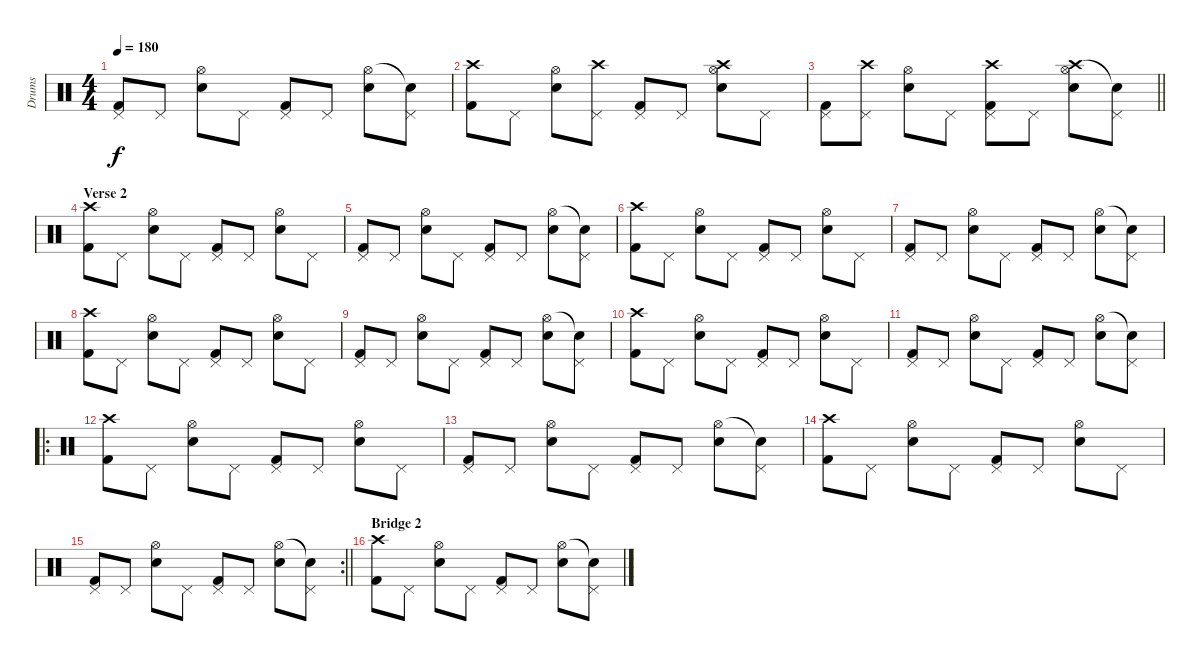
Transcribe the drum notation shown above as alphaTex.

\track ("Drums" "Drums") {instrument percussion}
\staff {score}
\articulation defaults
\ts (4 4)
\tempo 180
\clef neutral
\ks c
("Pedal Hi-Hat (hit)" "Kick (hit) 2").8{dy f} "Pedal Hi-Hat (hit)".8 ("Hi-Hat (open)" "Snare (hit) 2").8 "Pedal Hi-Hat (hit)".8 ("Pedal Hi-Hat (hit)" "Kick (hit) 2").8 "Pedal Hi-Hat (hit)".8 ("Hi-Hat (open)" "Snare (hit) 2").8 ("Snare (hit)"{t} "Pedal Hi-Hat (hit)").8 |
("Crash high (hit)" "Kick (hit) 2").8 "Pedal Hi-Hat (hit)".8 ("Hi-Hat (open)" "Snare (hit) 2").8 ("Crash high (hit)" "Pedal Hi-Hat (hit)").8 ("Pedal Hi-Hat (hit)" "Kick (hit) 2").8 "Pedal Hi-Hat (hit)".8 ("Crash high (hit)" "Hi-Hat (open)" "Snare (hit) 2").8 "Pedal Hi-Hat (hit)".8 |
\barLineRight lightlight
("Pedal Hi-Hat (hit)" "Kick (hit) 2").8 ("Crash high (hit)" "Pedal Hi-Hat (hit)").8 ("Hi-Hat (open)" "Snare (hit) 2").8 "Pedal Hi-Hat (hit)".8 ("Crash high (hit)" "Pedal Hi-Hat (hit)" "Kick (hit) 2").8 "Pedal Hi-Hat (hit)".8 ("Crash high (hit)" "Hi-Hat (open)" "Snare (hit) 2").8 ("Snare (hit)"{t} "Pedal Hi-Hat (hit)").8 |
\section ("" "Verse 2")
("Crash high (hit)" "Kick (hit) 2").8 "Pedal Hi-Hat (hit)".8 ("Hi-Hat (open)" "Snare (hit) 2").8 "Pedal Hi-Hat (hit)".8 ("Pedal Hi-Hat (hit)" "Kick (hit) 2").8 "Pedal Hi-Hat (hit)".8 ("Hi-Hat (open)" "Snare (hit) 2").8 "Pedal Hi-Hat (hit)".8 |
("Pedal Hi-Hat (hit)" "Kick (hit) 2").8 "Pedal Hi-Hat (hit)".8 ("Hi-Hat (open)" "Snare (hit) 2").8 "Pedal Hi-Hat (hit)".8 ("Pedal Hi-Hat (hit)" "Kick (hit) 2").8 "Pedal Hi-Hat (hit)".8 ("Hi-Hat (open)" "Snare (hit) 2").8 ("Snare (hit)"{t} "Pedal Hi-Hat (hit)").8 |
("Crash high (hit)" "Kick (hit) 2").8 "Pedal Hi-Hat (hit)".8 ("Hi-Hat (open)" "Snare (hit) 2").8 "Pedal Hi-Hat (hit)".8 ("Pedal Hi-Hat (hit)" "Kick (hit) 2").8 "Pedal Hi-Hat (hit)".8 ("Hi-Hat (open)" "Snare (hit) 2").8 "Pedal Hi-Hat (hit)".8 |
("Pedal Hi-Hat (hit)" "Kick (hit) 2").8 "Pedal Hi-Hat (hit)".8 ("Hi-Hat (open)" "Snare (hit) 2").8 "Pedal Hi-Hat (hit)".8 ("Pedal Hi-Hat (hit)" "Kick (hit) 2").8 "Pedal Hi-Hat (hit)".8 ("Hi-Hat (open)" "Snare (hit) 2").8 ("Snare (hit)"{t} "Pedal Hi-Hat (hit)").8 |
("Crash high (hit)" "Kick (hit) 2").8 "Pedal Hi-Hat (hit)".8 ("Hi-Hat (open)" "Snare (hit) 2").8 "Pedal Hi-Hat (hit)".8 ("Pedal Hi-Hat (hit)" "Kick (hit) 2").8 "Pedal Hi-Hat (hit)".8 ("Hi-Hat (open)" "Snare (hit) 2").8 "Pedal Hi-Hat (hit)".8 |
("Pedal Hi-Hat (hit)" "Kick (hit) 2").8 "Pedal Hi-Hat (hit)".8 ("Hi-Hat (open)" "Snare (hit) 2").8 "Pedal Hi-Hat (hit)".8 ("Pedal Hi-Hat (hit)" "Kick (hit) 2").8 "Pedal Hi-Hat (hit)".8 ("Hi-Hat (open)" "Snare (hit) 2").8 ("Snare (hit)"{t} "Pedal Hi-Hat (hit)").8 |
("Crash high (hit)" "Kick (hit) 2").8 "Pedal Hi-Hat (hit)".8 ("Hi-Hat (open)" "Snare (hit) 2").8 "Pedal Hi-Hat (hit)".8 ("Pedal Hi-Hat (hit)" "Kick (hit) 2").8 "Pedal Hi-Hat (hit)".8 ("Hi-Hat (open)" "Snare (hit) 2").8 "Pedal Hi-Hat (hit)".8 |
("Pedal Hi-Hat (hit)" "Kick (hit) 2").8 "Pedal Hi-Hat (hit)".8 ("Hi-Hat (open)" "Snare (hit) 2").8 "Pedal Hi-Hat (hit)".8 ("Pedal Hi-Hat (hit)" "Kick (hit) 2").8 "Pedal Hi-Hat (hit)".8 ("Hi-Hat (open)" "Snare (hit) 2").8 ("Snare (hit)"{t} "Pedal Hi-Hat (hit)").8 |
\ro
("Crash high (hit)" "Kick (hit) 2").8 "Pedal Hi-Hat (hit)".8 ("Hi-Hat (open)" "Snare (hit) 2").8 "Pedal Hi-Hat (hit)".8 ("Pedal Hi-Hat (hit)" "Kick (hit) 2").8 "Pedal Hi-Hat (hit)".8 ("Hi-Hat (open)" "Snare (hit) 2").8 "Pedal Hi-Hat (hit)".8 |
("Pedal Hi-Hat (hit)" "Kick (hit) 2").8 "Pedal Hi-Hat (hit)".8 ("Hi-Hat (open)" "Snare (hit) 2").8 "Pedal Hi-Hat (hit)".8 ("Pedal Hi-Hat (hit)" "Kick (hit) 2").8 "Pedal Hi-Hat (hit)".8 ("Hi-Hat (open)" "Snare (hit) 2").8 ("Snare (hit)"{t} "Pedal Hi-Hat (hit)").8 |
("Crash high (hit)" "Kick (hit) 2").8 "Pedal Hi-Hat (hit)".8 ("Hi-Hat (open)" "Snare (hit) 2").8 "Pedal Hi-Hat (hit)".8 ("Pedal Hi-Hat (hit)" "Kick (hit) 2").8 "Pedal Hi-Hat (hit)".8 ("Hi-Hat (open)" "Snare (hit) 2").8 "Pedal Hi-Hat (hit)".8 |
\rc 2
\barLineRight lightlight
("Pedal Hi-Hat (hit)" "Kick (hit) 2").8 "Pedal Hi-Hat (hit)".8 ("Hi-Hat (open)" "Snare (hit) 2").8 "Pedal Hi-Hat (hit)".8 ("Pedal Hi-Hat (hit)" "Kick (hit) 2").8 "Pedal Hi-Hat (hit)".8 ("Hi-Hat (open)" "Snare (hit) 2").8 ("Snare (hit)"{t} "Pedal Hi-Hat (hit)").8 |
\section ("" "Bridge 2")
("Crash high (hit)" "Kick (hit) 2").8 "Pedal Hi-Hat (hit)".8 ("Hi-Hat (open)" "Snare (hit) 2").8 "Pedal Hi-Hat (hit)".8 ("Pedal Hi-Hat (hit)" "Kick (hit) 2").8 "Pedal Hi-Hat (hit)".8 ("Hi-Hat (open)" "Snare (hit) 2").8 ("Snare (hit)"{t} "Pedal Hi-Hat (hit)").8
